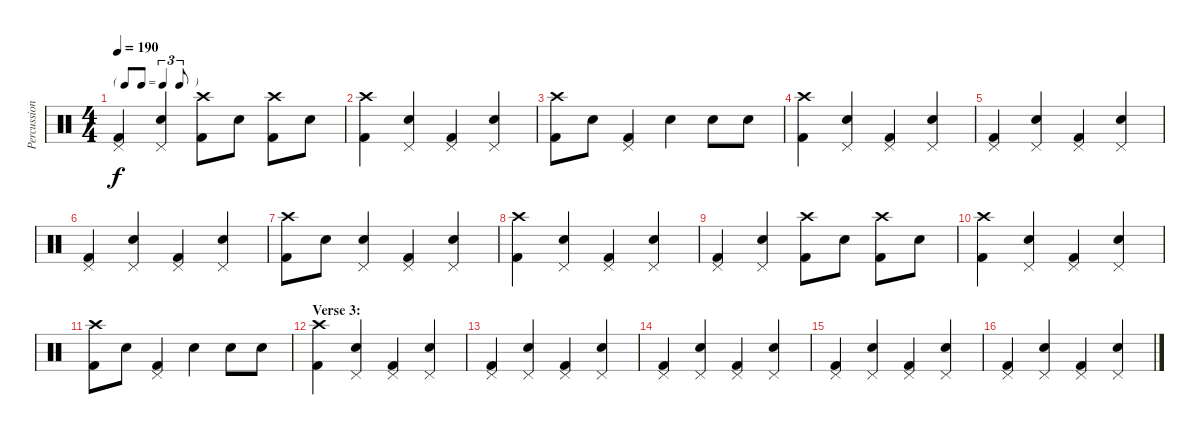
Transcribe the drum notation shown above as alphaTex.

\track ("Percussion" "Percussion") {instrument percussion}
\staff {score}
\articulation defaults
\ts (4 4)
\tf triplet8th
\tempo 190
\clef neutral
\ks c
("Pedal Hi-Hat (hit)" "Kick (hit) 2").4{dy f} ("Pedal Hi-Hat (hit)" "Electric Snare (hit)").4 ("Crash high (hit)" "Kick (hit) 2").8 "Electric Snare (hit)".8 ("Crash high (hit)" "Kick (hit) 2").8 "Electric Snare (hit)".8 |
("Crash high (hit)" "Kick (hit) 2").4 ("Pedal Hi-Hat (hit)" "Electric Snare (hit)").4 ("Pedal Hi-Hat (hit)" "Kick (hit) 2").4 ("Pedal Hi-Hat (hit)" "Electric Snare (hit)").4 |
("Crash high (hit)" "Kick (hit) 2").8 "Electric Snare (hit)".8 ("Pedal Hi-Hat (hit)" "Kick (hit) 2").4 "Electric Snare (hit)".4 "Electric Snare (hit)".8 "Electric Snare (hit)".8 |
("Crash high (hit)" "Kick (hit) 2").4 ("Pedal Hi-Hat (hit)" "Electric Snare (hit)").4 ("Pedal Hi-Hat (hit)" "Kick (hit) 2").4 ("Pedal Hi-Hat (hit)" "Electric Snare (hit)").4 |
("Pedal Hi-Hat (hit)" "Kick (hit) 2").4 ("Pedal Hi-Hat (hit)" "Electric Snare (hit)").4 ("Pedal Hi-Hat (hit)" "Kick (hit) 2").4 ("Pedal Hi-Hat (hit)" "Electric Snare (hit)").4 |
("Pedal Hi-Hat (hit)" "Kick (hit) 2").4 ("Pedal Hi-Hat (hit)" "Electric Snare (hit)").4 ("Pedal Hi-Hat (hit)" "Kick (hit) 2").4 ("Pedal Hi-Hat (hit)" "Electric Snare (hit)").4 |
("Crash high (hit)" "Kick (hit) 2").8 "Electric Snare (hit)".8 ("Pedal Hi-Hat (hit)" "Electric Snare (hit)").4 ("Pedal Hi-Hat (hit)" "Kick (hit) 2").4 ("Pedal Hi-Hat (hit)" "Electric Snare (hit)").4 |
("Crash high (hit)" "Kick (hit) 2").4 ("Pedal Hi-Hat (hit)" "Electric Snare (hit)").4 ("Pedal Hi-Hat (hit)" "Kick (hit) 2").4 ("Pedal Hi-Hat (hit)" "Electric Snare (hit)").4 |
("Pedal Hi-Hat (hit)" "Kick (hit) 2").4 ("Pedal Hi-Hat (hit)" "Electric Snare (hit)").4 ("Crash high (hit)" "Kick (hit) 2").8 "Electric Snare (hit)".8 ("Crash high (hit)" "Kick (hit) 2").8 "Electric Snare (hit)".8 |
("Crash high (hit)" "Kick (hit) 2").4 ("Pedal Hi-Hat (hit)" "Electric Snare (hit)").4 ("Pedal Hi-Hat (hit)" "Kick (hit) 2").4 ("Pedal Hi-Hat (hit)" "Electric Snare (hit)").4 |
("Crash high (hit)" "Kick (hit) 2").8 "Electric Snare (hit)".8 ("Pedal Hi-Hat (hit)" "Kick (hit) 2").4 "Electric Snare (hit)".4 "Electric Snare (hit)".8 "Electric Snare (hit)".8 |
\section ("" "Verse 3:")
("Crash high (hit)" "Kick (hit) 2").4 ("Pedal Hi-Hat (hit)" "Electric Snare (hit)").4 ("Pedal Hi-Hat (hit)" "Kick (hit) 2").4 ("Pedal Hi-Hat (hit)" "Electric Snare (hit)").4 |
("Pedal Hi-Hat (hit)" "Kick (hit) 2").4 ("Pedal Hi-Hat (hit)" "Electric Snare (hit)").4 ("Pedal Hi-Hat (hit)" "Kick (hit) 2").4 ("Pedal Hi-Hat (hit)" "Electric Snare (hit)").4 |
("Pedal Hi-Hat (hit)" "Kick (hit) 2").4 ("Pedal Hi-Hat (hit)" "Electric Snare (hit)").4 ("Pedal Hi-Hat (hit)" "Kick (hit) 2").4 ("Pedal Hi-Hat (hit)" "Electric Snare (hit)").4 |
("Pedal Hi-Hat (hit)" "Kick (hit) 2").4 ("Pedal Hi-Hat (hit)" "Electric Snare (hit)").4 ("Pedal Hi-Hat (hit)" "Kick (hit) 2").4 ("Pedal Hi-Hat (hit)" "Electric Snare (hit)").4 |
("Pedal Hi-Hat (hit)" "Kick (hit) 2").4 ("Pedal Hi-Hat (hit)" "Electric Snare (hit)").4 ("Pedal Hi-Hat (hit)" "Kick (hit) 2").4 ("Pedal Hi-Hat (hit)" "Electric Snare (hit)").4
